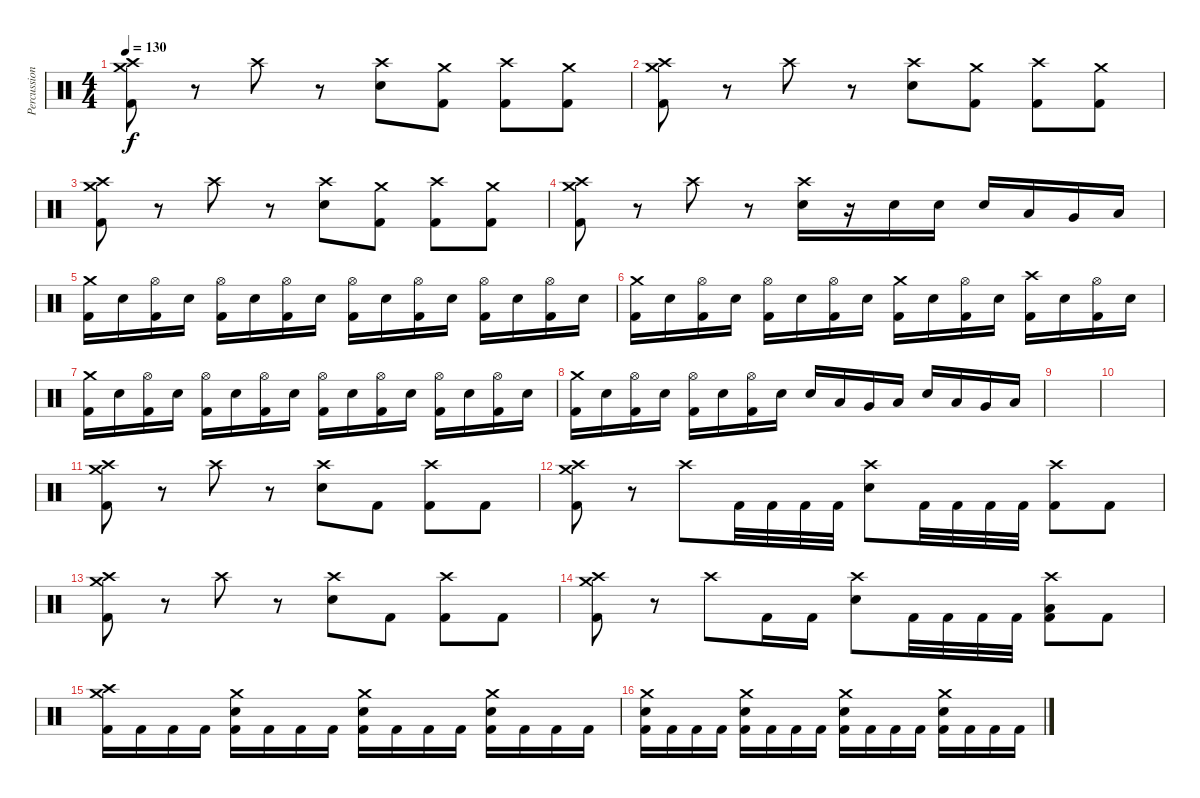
\track ("Percussion" "Percussion") {instrument percussion}
\staff {score}
\articulation defaults
\ts (4 4)
\tempo 130
\clef neutral
\ks c
("Crash medium (hit)" "Crash high (hit)" "Kick (hit) 2").8{dy f} r.8 "Crash high (hit)".8 r.8 ("Crash high (hit)" "Electric Snare (hit)").8 ("Crash medium (hit)" "Kick (hit) 2").8 ("Crash high (hit)" "Kick (hit) 2").8 ("Crash medium (hit)" "Kick (hit) 2").8 |
("Crash medium (hit)" "Crash high (hit)" "Kick (hit) 2").8 r.8 "Crash high (hit)".8 r.8 ("Crash high (hit)" "Electric Snare (hit)").8 ("Crash medium (hit)" "Kick (hit) 2").8 ("Crash high (hit)" "Kick (hit) 2").8 ("Crash medium (hit)" "Kick (hit) 2").8 |
("Crash medium (hit)" "Crash high (hit)" "Kick (hit) 2").8 r.8 "Crash high (hit)".8 r.8 ("Crash high (hit)" "Electric Snare (hit)").8 ("Crash medium (hit)" "Kick (hit) 2").8 ("Crash high (hit)" "Kick (hit) 2").8 ("Crash medium (hit)" "Kick (hit) 2").8 |
("Crash medium (hit)" "Crash high (hit)" "Kick (hit) 2").8 r.8 "Crash high (hit)".8 r.8 ("Crash high (hit)" "Electric Snare (hit)").16 r.16 "Electric Snare (hit)".16 "Electric Snare (hit)".16 "Electric Snare (hit)".16 "Low Tom (hit)".16 "Very Low Tom (hit)".16 "Low Floor Tom (hit)".16 |
("Crash medium (hit)" "Kick (hit) 2").16 "Electric Snare (hit)".16 ("Hi-Hat (open)" "Kick (hit) 2").16 "Electric Snare (hit)".16 ("Hi-Hat (open)" "Kick (hit) 2").16 "Electric Snare (hit)".16 ("Hi-Hat (open)" "Kick (hit) 2").16 "Electric Snare (hit)".16 ("Hi-Hat (open)" "Kick (hit) 2").16 "Electric Snare (hit)".16 ("Hi-Hat (open)" "Kick (hit) 2").16 "Electric Snare (hit)".16 ("Hi-Hat (open)" "Kick (hit) 2").16 "Electric Snare (hit)".16 ("Hi-Hat (open)" "Kick (hit) 2").16 "Electric Snare (hit)".16 |
("Crash medium (hit)" "Kick (hit) 2").16 "Electric Snare (hit)".16 ("Hi-Hat (open)" "Kick (hit) 2").16 "Electric Snare (hit)".16 ("Hi-Hat (open)" "Kick (hit) 2").16 "Electric Snare (hit)".16 ("Hi-Hat (open)" "Kick (hit) 2").16 "Electric Snare (hit)".16 ("Crash medium (hit)" "Kick (hit) 2").16 "Electric Snare (hit)".16 ("Hi-Hat (open)" "Kick (hit) 2").16 "Electric Snare (hit)".16 ("Crash high (hit)" "Kick (hit) 2").16 "Electric Snare (hit)".16 ("Hi-Hat (open)" "Kick (hit) 2").16 "Electric Snare (hit)".16 |
("Crash medium (hit)" "Kick (hit) 2").16 "Electric Snare (hit)".16 ("Hi-Hat (open)" "Kick (hit) 2").16 "Electric Snare (hit)".16 ("Hi-Hat (open)" "Kick (hit) 2").16 "Electric Snare (hit)".16 ("Hi-Hat (open)" "Kick (hit) 2").16 "Electric Snare (hit)".16 ("Hi-Hat (open)" "Kick (hit) 2").16 "Electric Snare (hit)".16 ("Hi-Hat (open)" "Kick (hit) 2").16 "Electric Snare (hit)".16 ("Hi-Hat (open)" "Kick (hit) 2").16 "Electric Snare (hit)".16 ("Hi-Hat (open)" "Kick (hit) 2").16 "Electric Snare (hit)".16 |
("Crash medium (hit)" "Kick (hit) 2").16 "Electric Snare (hit)".16 ("Hi-Hat (open)" "Kick (hit) 2").16 "Electric Snare (hit)".16 ("Hi-Hat (open)" "Kick (hit) 2").16 "Electric Snare (hit)".16 ("Hi-Hat (open)" "Kick (hit) 2").16 "Electric Snare (hit)".16 "Electric Snare (hit)".16 "Low Tom (hit)".16 "Very Low Tom (hit)".16 "Low Floor Tom (hit)".16 "Electric Snare (hit)".16 "Low Tom (hit)".16 "Very Low Tom (hit)".16 "Low Floor Tom (hit)".16 |
|
|
("Crash medium (hit)" "Crash high (hit)" "Kick (hit) 2").8 r.8 "Crash high (hit)".8 r.8 ("Crash high (hit)" "Electric Snare (hit)").8 "Kick (hit) 2".8 ("Crash high (hit)" "Kick (hit) 2").8 "Kick (hit) 2".8 |
("Crash medium (hit)" "Crash high (hit)" "Kick (hit) 2").8 r.8 "Crash high (hit)".8 "Kick (hit) 2".32 "Kick (hit) 2".32 "Kick (hit) 2".32 "Kick (hit) 2".32 ("Crash high (hit)" "Electric Snare (hit)").8 "Kick (hit) 2".32 "Kick (hit) 2".32 "Kick (hit) 2".32 "Kick (hit) 2".32 ("Crash high (hit)" "Kick (hit) 2").8 "Kick (hit) 2".8 |
("Crash medium (hit)" "Crash high (hit)" "Kick (hit) 2").8 r.8 "Crash high (hit)".8 r.8 ("Crash high (hit)" "Electric Snare (hit)").8 "Kick (hit) 2".8 ("Crash high (hit)" "Kick (hit) 2").8 "Kick (hit) 2".8 |
("Crash medium (hit)" "Crash high (hit)" "Kick (hit) 2").8 r.8 "Crash high (hit)".8 "Kick (hit) 2".16 "Kick (hit) 2".16 ("Crash high (hit)" "Electric Snare (hit)").8 "Kick (hit) 2".32 "Kick (hit) 2".32 "Kick (hit) 2".32 "Kick (hit) 2".32 ("Crash high (hit)" "Low Tom (hit)" "Kick (hit) 2").8 "Kick (hit) 2".8 |
("Crash medium (hit)" "Crash high (hit)" "Kick (hit) 2").16 "Kick (hit) 2".16 "Kick (hit) 2".16 "Kick (hit) 2".16 ("Crash medium (hit)" "Electric Snare (hit)" "Kick (hit) 2").16 "Kick (hit) 2".16 "Kick (hit) 2".16 "Kick (hit) 2".16 ("Crash medium (hit)" "Electric Snare (hit)" "Kick (hit) 2").16 "Kick (hit) 2".16 "Kick (hit) 2".16 "Kick (hit) 2".16 ("Crash medium (hit)" "Electric Snare (hit)" "Kick (hit) 2").16 "Kick (hit) 2".16 "Kick (hit) 2".16 "Kick (hit) 2".16 |
("Crash medium (hit)" "Electric Snare (hit)" "Kick (hit) 2").16 "Kick (hit) 2".16 "Kick (hit) 2".16 "Kick (hit) 2".16 ("Crash medium (hit)" "Electric Snare (hit)" "Kick (hit) 2").16 "Kick (hit) 2".16 "Kick (hit) 2".16 "Kick (hit) 2".16 ("Crash medium (hit)" "Electric Snare (hit)" "Kick (hit) 2").16 "Kick (hit) 2".16 "Kick (hit) 2".16 "Kick (hit) 2".16 ("Crash medium (hit)" "Electric Snare (hit)" "Kick (hit) 2").16 "Kick (hit) 2".16 "Kick (hit) 2".16 "Kick (hit) 2".16
